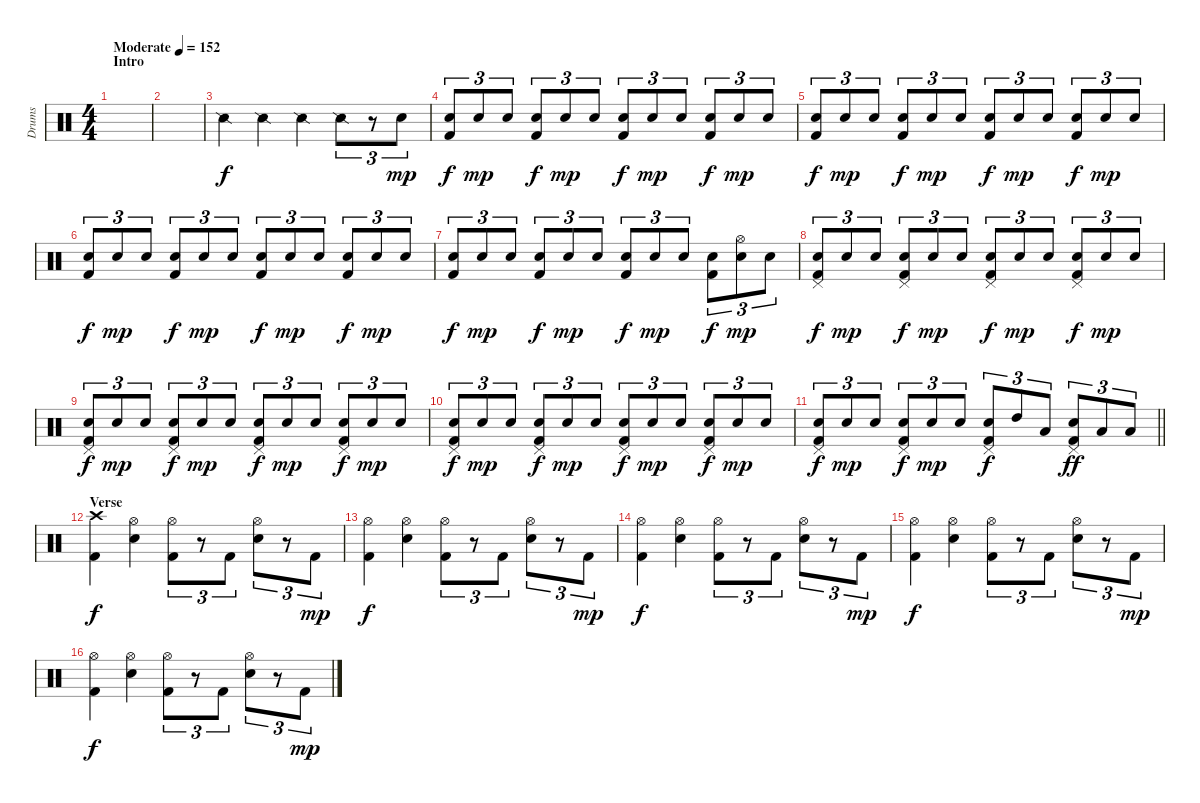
\track ("Drums" "Drums") {instrument percussion}
\staff {score}
\articulation defaults
\ts (4 4)
\section ("" "Intro")
\tempo (152 "Moderate")
\clef neutral
\ks c
|
|
"Snare (side stick) 2".4 "Snare (side stick) 2".4 "Snare (side stick) 2".4 "Snare (side stick) 2".8{tu (3 2)} r.8{tu (3 2)} "Snare (hit) 2".8{tu (3 2) dy mp} |
("Snare (hit) 2" "Kick (hit) 2").8{tu (3 2) dy f volume 14} "Snare (hit) 2".8{tu (3 2) dy mp} "Snare (hit) 2".8{tu (3 2)} ("Snare (hit) 2" "Kick (hit) 2").8{tu (3 2) dy f} "Snare (hit) 2".8{tu (3 2) dy mp} "Snare (hit) 2".8{tu (3 2)} ("Snare (hit) 2" "Kick (hit) 2").8{tu (3 2) dy f} "Snare (hit) 2".8{tu (3 2) dy mp} "Snare (hit) 2".8{tu (3 2)} ("Snare (hit) 2" "Kick (hit) 2").8{tu (3 2) dy f} "Snare (hit) 2".8{tu (3 2) dy mp} "Snare (hit) 2".8{tu (3 2)} |
("Snare (hit) 2" "Kick (hit) 2").8{tu (3 2) dy f} "Snare (hit) 2".8{tu (3 2) dy mp} "Snare (hit) 2".8{tu (3 2)} ("Snare (hit) 2" "Kick (hit) 2").8{tu (3 2) dy f} "Snare (hit) 2".8{tu (3 2) dy mp} "Snare (hit) 2".8{tu (3 2)} ("Snare (hit) 2" "Kick (hit) 2").8{tu (3 2) dy f} "Snare (hit) 2".8{tu (3 2) dy mp} "Snare (hit) 2".8{tu (3 2)} ("Snare (hit) 2" "Kick (hit) 2").8{tu (3 2) dy f} "Snare (hit) 2".8{tu (3 2) dy mp} "Snare (hit) 2".8{tu (3 2)} |
("Snare (hit) 2" "Kick (hit) 2").8{tu (3 2) dy f} "Snare (hit) 2".8{tu (3 2) dy mp} "Snare (hit) 2".8{tu (3 2)} ("Snare (hit) 2" "Kick (hit) 2").8{tu (3 2) dy f} "Snare (hit) 2".8{tu (3 2) dy mp} "Snare (hit) 2".8{tu (3 2)} ("Snare (hit) 2" "Kick (hit) 2").8{tu (3 2) dy f} "Snare (hit) 2".8{tu (3 2) dy mp} "Snare (hit) 2".8{tu (3 2)} ("Snare (hit) 2" "Kick (hit) 2").8{tu (3 2) dy f} "Snare (hit) 2".8{tu (3 2) dy mp} "Snare (hit) 2".8{tu (3 2)} |
("Snare (hit) 2" "Kick (hit) 2").8{tu (3 2) dy f} "Snare (hit) 2".8{tu (3 2) dy mp} "Snare (hit) 2".8{tu (3 2)} ("Snare (hit) 2" "Kick (hit) 2").8{tu (3 2) dy f} "Snare (hit) 2".8{tu (3 2) dy mp} "Snare (hit) 2".8{tu (3 2)} ("Snare (hit) 2" "Kick (hit) 2").8{tu (3 2) dy f} "Snare (hit) 2".8{tu (3 2) dy mp} "Snare (hit) 2".8{tu (3 2)} ("Snare (hit) 2" "Kick (hit) 2").8{tu (3 2) dy f} ("Hi-Hat (open)" "Snare (hit) 2").8{tu (3 2) dy mp} "Snare (hit) 2".8{tu (3 2)} |
("Pedal Hi-Hat (hit)" "Snare (hit) 2" "Kick (hit) 2").8{tu (3 2) dy f} "Snare (hit) 2".8{tu (3 2) dy mp} "Snare (hit) 2".8{tu (3 2)} ("Pedal Hi-Hat (hit)" "Snare (hit) 2" "Kick (hit) 2").8{tu (3 2) dy f} "Snare (hit) 2".8{tu (3 2) dy mp} "Snare (hit) 2".8{tu (3 2)} ("Pedal Hi-Hat (hit)" "Snare (hit) 2" "Kick (hit) 2").8{tu (3 2) dy f} "Snare (hit) 2".8{tu (3 2) dy mp} "Snare (hit) 2".8{tu (3 2)} ("Pedal Hi-Hat (hit)" "Snare (hit) 2" "Kick (hit) 2").8{tu (3 2) dy f} "Snare (hit) 2".8{tu (3 2) dy mp} "Snare (hit) 2".8{tu (3 2)} |
("Pedal Hi-Hat (hit)" "Snare (hit) 2" "Kick (hit) 2").8{tu (3 2) dy f} "Snare (hit) 2".8{tu (3 2) dy mp} "Snare (hit) 2".8{tu (3 2)} ("Pedal Hi-Hat (hit)" "Snare (hit) 2" "Kick (hit) 2").8{tu (3 2) dy f} "Snare (hit) 2".8{tu (3 2) dy mp} "Snare (hit) 2".8{tu (3 2)} ("Pedal Hi-Hat (hit)" "Snare (hit) 2" "Kick (hit) 2").8{tu (3 2) dy f} "Snare (hit) 2".8{tu (3 2) dy mp} "Snare (hit) 2".8{tu (3 2)} ("Pedal Hi-Hat (hit)" "Snare (hit) 2" "Kick (hit) 2").8{tu (3 2) dy f} "Snare (hit) 2".8{tu (3 2) dy mp} "Snare (hit) 2".8{tu (3 2)} |
("Pedal Hi-Hat (hit)" "Snare (hit) 2" "Kick (hit) 2").8{tu (3 2) dy f} "Snare (hit) 2".8{tu (3 2) dy mp} "Snare (hit) 2".8{tu (3 2)} ("Pedal Hi-Hat (hit)" "Snare (hit) 2" "Kick (hit) 2").8{tu (3 2) dy f} "Snare (hit) 2".8{tu (3 2) dy mp} "Snare (hit) 2".8{tu (3 2)} ("Pedal Hi-Hat (hit)" "Snare (hit) 2" "Kick (hit) 2").8{tu (3 2) dy f} "Snare (hit) 2".8{tu (3 2) dy mp} "Snare (hit) 2".8{tu (3 2)} ("Pedal Hi-Hat (hit)" "Snare (hit) 2" "Kick (hit) 2").8{tu (3 2) dy f} "Snare (hit) 2".8{tu (3 2) dy mp} "Snare (hit) 2".8{tu (3 2)} |
\barLineRight lightlight
("Pedal Hi-Hat (hit)" "Snare (hit) 2" "Kick (hit) 2").8{tu (3 2) dy f volume 16} "Snare (hit) 2".8{tu (3 2) dy mp} "Snare (hit) 2".8{tu (3 2)} ("Pedal Hi-Hat (hit)" "Snare (hit) 2" "Kick (hit) 2").8{tu (3 2) dy f} "Snare (hit) 2".8{tu (3 2) dy mp} "Snare (hit) 2".8{tu (3 2)} ("Pedal Hi-Hat (hit)" "Snare (hit) 2" "Kick (hit) 2").8{tu (3 2) dy f} "High Tom (hit)".8{tu (3 2)} "Low Tom (hit)".8{tu (3 2)} ("Pedal Hi-Hat (hit)" "Snare (hit) 2" "Kick (hit) 2").8{tu (3 2) dy ff} "Low Tom (hit)".8{tu (3 2)} "Low Tom (hit)".8{tu (3 2)} |
\section ("" "Verse")
("Crash high (hit)" "Kick (hit) 2").4{dy f} ("Hi-Hat (open)" "Snare (hit) 2").4 ("Hi-Hat (open)" "Kick (hit) 2").8{tu (3 2)} r.8{tu (3 2)} "Kick (hit) 2".8{tu (3 2)} ("Hi-Hat (open)" "Snare (hit) 2").8{tu (3 2)} r.8{tu (3 2)} "Kick (hit) 2".8{tu (3 2) dy mp} |
("Hi-Hat (open)" "Kick (hit) 2").4{dy f} ("Hi-Hat (open)" "Snare (hit) 2").4 ("Hi-Hat (open)" "Kick (hit) 2").8{tu (3 2)} r.8{tu (3 2)} "Kick (hit) 2".8{tu (3 2)} ("Hi-Hat (open)" "Snare (hit) 2").8{tu (3 2)} r.8{tu (3 2)} "Kick (hit) 2".8{tu (3 2) dy mp} |
("Hi-Hat (open)" "Kick (hit) 2").4{dy f} ("Hi-Hat (open)" "Snare (hit) 2").4 ("Hi-Hat (open)" "Kick (hit) 2").8{tu (3 2)} r.8{tu (3 2)} "Kick (hit) 2".8{tu (3 2)} ("Hi-Hat (open)" "Snare (hit) 2").8{tu (3 2)} r.8{tu (3 2)} "Kick (hit) 2".8{tu (3 2) dy mp} |
("Hi-Hat (open)" "Kick (hit) 2").4{dy f} ("Hi-Hat (open)" "Snare (hit) 2").4 ("Hi-Hat (open)" "Kick (hit) 2").8{tu (3 2)} r.8{tu (3 2)} "Kick (hit) 2".8{tu (3 2)} ("Hi-Hat (open)" "Snare (hit) 2").8{tu (3 2)} r.8{tu (3 2)} "Kick (hit) 2".8{tu (3 2) dy mp} |
("Hi-Hat (open)" "Kick (hit) 2").4{dy f} ("Hi-Hat (open)" "Snare (hit) 2").4 ("Hi-Hat (open)" "Kick (hit) 2").8{tu (3 2)} r.8{tu (3 2)} "Kick (hit) 2".8{tu (3 2)} ("Hi-Hat (open)" "Snare (hit) 2").8{tu (3 2)} r.8{tu (3 2)} "Kick (hit) 2".8{tu (3 2) dy mp}
